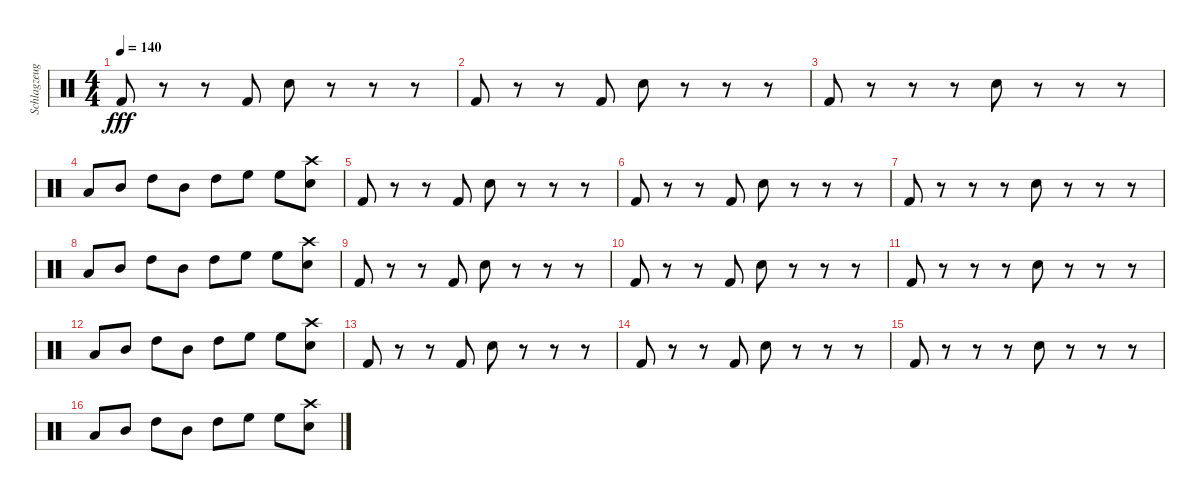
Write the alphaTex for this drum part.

\track ("Schlagzeug" "Schlagzeug") {instrument percussion}
\staff {score}
\articulation defaults
\ts (4 4)
\tempo 140
\clef neutral
\ks c "Kick (hit) 2".8{dy fff}
r.8 r.8 "Kick (hit) 2".8 "Electric Snare (hit)".8 r.8 r.8 r.8 |
"Kick (hit) 2".8 r.8 r.8 "Kick (hit) 2".8 "Electric Snare (hit)".8 r.8 r.8 r.8 |
"Kick (hit) 2".8 r.8 r.8 r.8 "Electric Snare (hit)".8 r.8 r.8 r.8 |
"Low Tom (hit)".8 "Mid Tom (hit)".8 "High Tom (hit)".8 "Mid Tom (hit)".8 "High Tom (hit)".8 "High Floor Tom (hit)".8 "High Floor Tom (hit)".8 ("Crash high (hit)" "Electric Snare (hit)").8 |
"Kick (hit) 2".8 r.8 r.8 "Kick (hit) 2".8 "Electric Snare (hit)".8 r.8 r.8 r.8 |
"Kick (hit) 2".8 r.8 r.8 "Kick (hit) 2".8 "Electric Snare (hit)".8 r.8 r.8 r.8 |
"Kick (hit) 2".8 r.8 r.8 r.8 "Electric Snare (hit)".8 r.8 r.8 r.8 |
"Low Tom (hit)".8 "Mid Tom (hit)".8 "High Tom (hit)".8 "Mid Tom (hit)".8 "High Tom (hit)".8 "High Floor Tom (hit)".8 "High Floor Tom (hit)".8 ("Crash high (hit)" "Electric Snare (hit)").8 |
"Kick (hit) 2".8 r.8 r.8 "Kick (hit) 2".8 "Electric Snare (hit)".8 r.8 r.8 r.8 |
"Kick (hit) 2".8 r.8 r.8 "Kick (hit) 2".8 "Electric Snare (hit)".8 r.8 r.8 r.8 |
"Kick (hit) 2".8 r.8 r.8 r.8 "Electric Snare (hit)".8 r.8 r.8 r.8 |
"Low Tom (hit)".8 "Mid Tom (hit)".8 "High Tom (hit)".8 "Mid Tom (hit)".8 "High Tom (hit)".8 "High Floor Tom (hit)".8 "High Floor Tom (hit)".8 ("Crash high (hit)" "Electric Snare (hit)").8 |
"Kick (hit) 2".8 r.8 r.8 "Kick (hit) 2".8 "Electric Snare (hit)".8 r.8 r.8 r.8 |
"Kick (hit) 2".8 r.8 r.8 "Kick (hit) 2".8 "Electric Snare (hit)".8 r.8 r.8 r.8 |
"Kick (hit) 2".8 r.8 r.8 r.8 "Electric Snare (hit)".8 r.8 r.8 r.8 |
"Low Tom (hit)".8 "Mid Tom (hit)".8 "High Tom (hit)".8 "Mid Tom (hit)".8 "High Tom (hit)".8 "High Floor Tom (hit)".8 "High Floor Tom (hit)".8 ("Crash high (hit)" "Electric Snare (hit)").8
